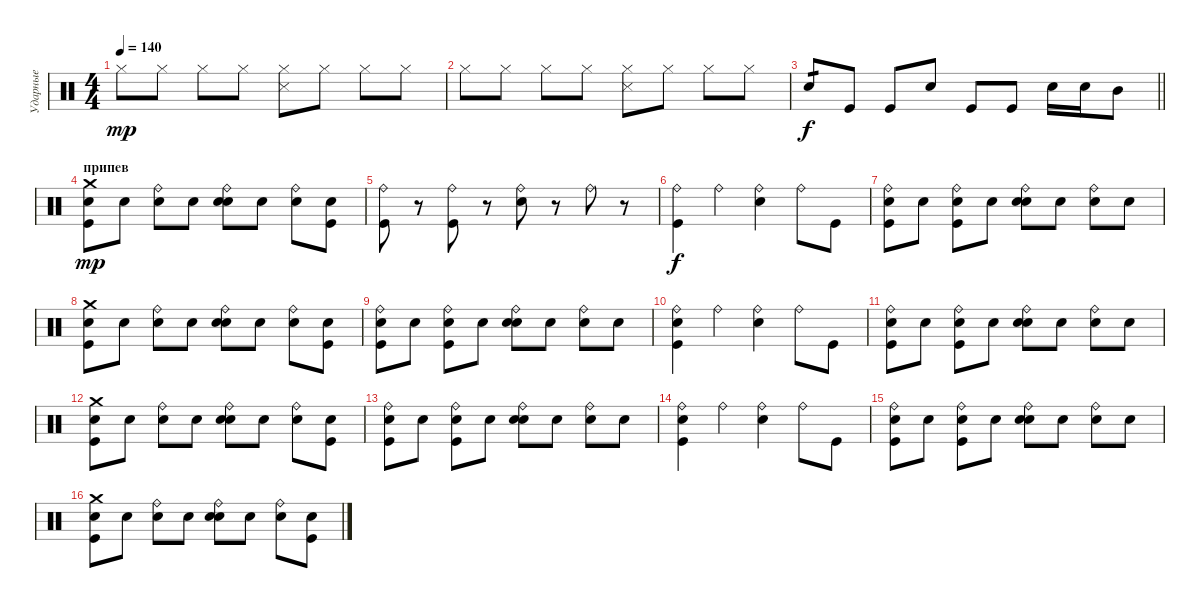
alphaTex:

\track ("Ударные" "Ударные") {instrument percussion}
\staff {score}
\articulation defaults
\ts (4 4)
\tempo 140
\clef neutral
\ks c "Hi-Hat (closed)".8{dy mp} "Hi-Hat (closed)".8 "Hi-Hat (closed)".8 "Hi-Hat (closed)".8
("Snare (side stick) 3" "Hi-Hat (closed)").8 "Hi-Hat (closed)".8 "Hi-Hat (closed)".8 "Hi-Hat (closed)".8 |
"Hi-Hat (closed)".8 "Hi-Hat (closed)".8 "Hi-Hat (closed)".8 "Hi-Hat (closed)".8 ("Snare (side stick) 3" "Hi-Hat (closed)").8 "Hi-Hat (closed)".8 "Hi-Hat (closed)".8 "Hi-Hat (closed)".8 |
\barLineRight lightlight "Snare (hit) 2".8{tp 1 dy f} "Kick (hit)".8 "Kick (hit)".8 "Snare (hit) 2".8 "Kick (hit)".8 "Kick (hit)".8 "Snare (hit) 2".16 "Snare (hit) 2".16 "Mid Tom (hit)".8
|
\section ("" "припев")
("Snare (hit)" "Crash medium (hit)" "Kick (hit)").8{dy mp} "Snare (hit)".8 ("Snare (hit)" "Ride (bell)").8 "Snare (hit)".8 ("Snare (hit)" "Snare (hit) 2" "Ride (bell)").8 "Snare (hit)".8 ("Snare (hit)" "Ride (bell)").8 ("Snare (hit)" "Kick (hit)").8 |
("Kick (hit)" "Ride (bell)").8 r.8 ("Kick (hit)" "Ride (bell)").8 r.8 ("Snare (hit) 2" "Ride (bell)").8 r.8 "Ride (bell)".8 r.8 |
("Kick (hit)" "Ride (bell)").4{dy f} "Ride (bell)".4 ("Snare (hit) 2" "Ride (bell)").4 "Ride (bell)".8 "Kick (hit)".8 |
("Snare (hit)" "Kick (hit)" "Ride (bell)").8 "Snare (hit)".8 ("Snare (hit)" "Kick (hit)" "Ride (bell)").8 "Snare (hit)".8 ("Snare (hit)" "Snare (hit) 2" "Ride (bell)").8 "Snare (hit)".8 ("Snare (hit)" "Ride (bell)").8 "Snare (hit)".8 |
("Snare (hit)" "Crash medium (hit)" "Kick (hit)").8 "Snare (hit)".8 ("Snare (hit)" "Ride (bell)").8 "Snare (hit)".8 ("Snare (hit)" "Snare (hit) 2" "Ride (bell)").8 "Snare (hit)".8 ("Snare (hit)" "Ride (bell)").8 ("Snare (hit)" "Kick (hit)").8 |
("Snare (hit)" "Kick (hit)" "Ride (bell)").8 "Snare (hit)".8 ("Snare (hit)" "Kick (hit)" "Ride (bell)").8 "Snare (hit)".8 ("Snare (hit)" "Snare (hit) 2" "Ride (bell)").8 "Snare (hit)".8 ("Snare (hit)" "Ride (bell)").8 "Snare (hit)".8 |
("Snare (hit)" "Kick (hit)" "Ride (bell)").4 "Ride (bell)".4 ("Snare (hit) 2" "Ride (bell)").4 "Ride (bell)".8 "Kick (hit)".8 |
("Snare (hit)" "Kick (hit)" "Ride (bell)").8 "Snare (hit)".8 ("Snare (hit)" "Kick (hit)" "Ride (bell)").8 "Snare (hit)".8 ("Snare (hit)" "Snare (hit) 2" "Ride (bell)").8 "Snare (hit)".8 ("Snare (hit)" "Ride (bell)").8 "Snare (hit)".8 |
("Snare (hit)" "Crash medium (hit)" "Kick (hit)").8 "Snare (hit)".8 ("Snare (hit)" "Ride (bell)").8 "Snare (hit)".8 ("Snare (hit)" "Snare (hit) 2" "Ride (bell)").8 "Snare (hit)".8 ("Snare (hit)" "Ride (bell)").8 ("Snare (hit)" "Kick (hit)").8 |
("Snare (hit)" "Kick (hit)" "Ride (bell)").8 "Snare (hit)".8 ("Snare (hit)" "Kick (hit)" "Ride (bell)").8 "Snare (hit)".8 ("Snare (hit)" "Snare (hit) 2" "Ride (bell)").8 "Snare (hit)".8 ("Snare (hit)" "Ride (bell)").8 "Snare (hit)".8 |
("Snare (hit)" "Kick (hit)" "Ride (bell)").4 "Ride (bell)".4 ("Snare (hit) 2" "Ride (bell)").4 "Ride (bell)".8 "Kick (hit)".8 |
("Snare (hit)" "Kick (hit)" "Ride (bell)").8 "Snare (hit)".8 ("Snare (hit)" "Kick (hit)" "Ride (bell)").8 "Snare (hit)".8 ("Snare (hit)" "Snare (hit) 2" "Ride (bell)").8 "Snare (hit)".8 ("Snare (hit)" "Ride (bell)").8 "Snare (hit)".8 |
("Snare (hit)" "Crash medium (hit)" "Kick (hit)").8 "Snare (hit)".8 ("Snare (hit)" "Ride (bell)").8 "Snare (hit)".8 ("Snare (hit)" "Snare (hit) 2" "Ride (bell)").8 "Snare (hit)".8 ("Snare (hit)" "Ride (bell)").8 ("Snare (hit)" "Kick (hit)").8
